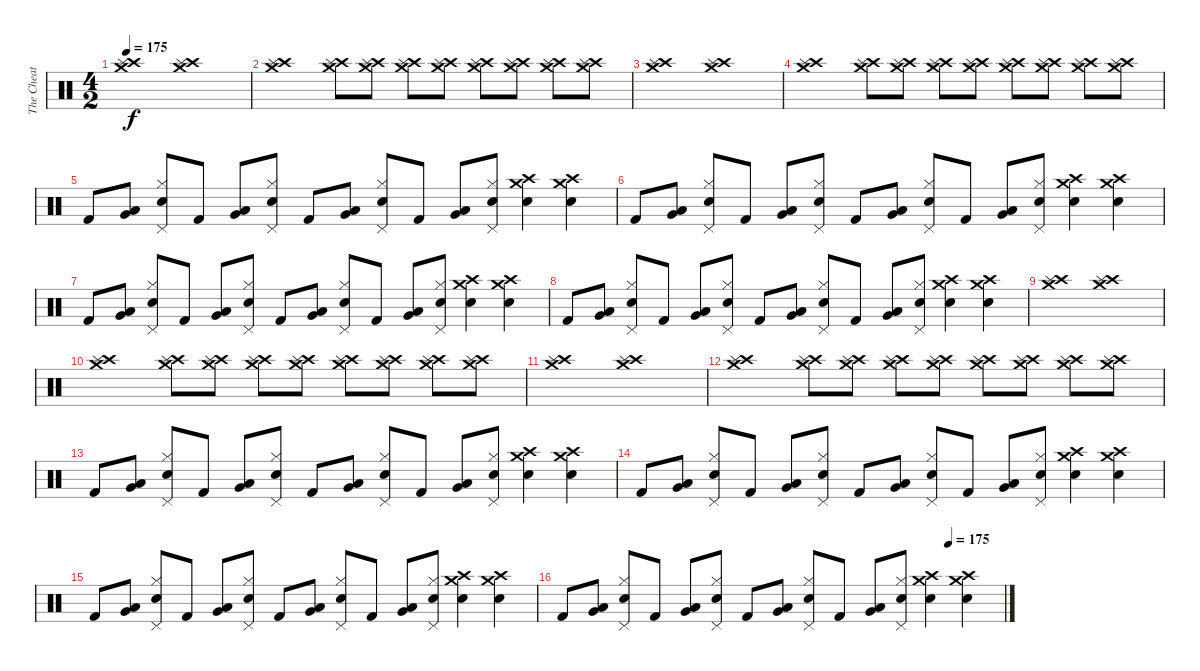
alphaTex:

\track ("The Cheat Keyboard Beat" "The Cheat ") {instrument percussion}
\staff {score}
\articulation defaults
\ts (4 2)
\tempo 175
\clef neutral
\ks c
("Crash high (hit)" "Splash (hit)" "Crash medium (hit)").1{dy f} ("Crash high (hit)" "Splash (hit)" "Crash medium (hit)").1 |
("Crash high (hit)" "Splash (hit)" "Crash medium (hit)").1 ("Crash high (hit)" "Splash (hit)" "Crash medium (hit)").8 ("Crash high (hit)" "Splash (hit)" "Crash medium (hit)").8 ("Crash high (hit)" "Splash (hit)" "Crash medium (hit)").8 ("Crash high (hit)" "Splash (hit)" "Crash medium (hit)").8 ("Crash high (hit)" "Splash (hit)" "Crash medium (hit)").8 ("Crash high (hit)" "Splash (hit)" "Crash medium (hit)").8 ("Crash high (hit)" "Splash (hit)" "Crash medium (hit)").8 ("Crash high (hit)" "Splash (hit)" "Crash medium (hit)").8 |
("Crash high (hit)" "Splash (hit)" "Crash medium (hit)").1 ("Crash high (hit)" "Splash (hit)" "Crash medium (hit)").1 |
("Crash high (hit)" "Splash (hit)" "Crash medium (hit)").1 ("Crash high (hit)" "Splash (hit)" "Crash medium (hit)").8 ("Crash high (hit)" "Splash (hit)" "Crash medium (hit)").8 ("Crash high (hit)" "Splash (hit)" "Crash medium (hit)").8 ("Crash high (hit)" "Splash (hit)" "Crash medium (hit)").8 ("Crash high (hit)" "Splash (hit)" "Crash medium (hit)").8 ("Crash high (hit)" "Splash (hit)" "Crash medium (hit)").8 ("Crash high (hit)" "Splash (hit)" "Crash medium (hit)").8 ("Crash high (hit)" "Splash (hit)" "Crash medium (hit)").8 |
"Kick (hit) 2".8 ("Low Floor Tom (hit)" "Very Low Tom (hit)").8 ("Electric Snare (hit)" "Hi-Hat (closed)" "Pedal Hi-Hat (hit)").8 "Kick (hit) 2".8 ("Low Floor Tom (hit)" "Very Low Tom (hit)").8 ("Electric Snare (hit)" "Hi-Hat (closed)" "Pedal Hi-Hat (hit)").8 "Kick (hit) 2".8 ("Low Floor Tom (hit)" "Very Low Tom (hit)").8 ("Electric Snare (hit)" "Hi-Hat (closed)" "Pedal Hi-Hat (hit)").8 "Kick (hit) 2".8 ("Low Floor Tom (hit)" "Very Low Tom (hit)").8 ("Electric Snare (hit)" "Hi-Hat (closed)" "Pedal Hi-Hat (hit)").8 ("Crash high (hit)" "Electric Snare (hit)" "Crash medium (hit)").4 ("Crash high (hit)" "Electric Snare (hit)" "Crash medium (hit)").4 |
"Kick (hit) 2".8 ("Low Floor Tom (hit)" "Very Low Tom (hit)").8 ("Electric Snare (hit)" "Hi-Hat (closed)" "Pedal Hi-Hat (hit)").8 "Kick (hit) 2".8 ("Low Floor Tom (hit)" "Very Low Tom (hit)").8 ("Electric Snare (hit)" "Hi-Hat (closed)" "Pedal Hi-Hat (hit)").8 "Kick (hit) 2".8 ("Low Floor Tom (hit)" "Very Low Tom (hit)").8 ("Electric Snare (hit)" "Hi-Hat (closed)" "Pedal Hi-Hat (hit)").8 "Kick (hit) 2".8 ("Low Floor Tom (hit)" "Very Low Tom (hit)").8 ("Electric Snare (hit)" "Hi-Hat (closed)" "Pedal Hi-Hat (hit)").8 ("Crash high (hit)" "Electric Snare (hit)" "Crash medium (hit)").4 ("Crash high (hit)" "Electric Snare (hit)" "Crash medium (hit)").4 |
"Kick (hit) 2".8 ("Low Floor Tom (hit)" "Very Low Tom (hit)").8 ("Electric Snare (hit)" "Hi-Hat (closed)" "Pedal Hi-Hat (hit)").8 "Kick (hit) 2".8 ("Low Floor Tom (hit)" "Very Low Tom (hit)").8 ("Electric Snare (hit)" "Hi-Hat (closed)" "Pedal Hi-Hat (hit)").8 "Kick (hit) 2".8 ("Low Floor Tom (hit)" "Very Low Tom (hit)").8 ("Electric Snare (hit)" "Hi-Hat (closed)" "Pedal Hi-Hat (hit)").8 "Kick (hit) 2".8 ("Low Floor Tom (hit)" "Very Low Tom (hit)").8 ("Electric Snare (hit)" "Hi-Hat (closed)" "Pedal Hi-Hat (hit)").8 ("Crash high (hit)" "Electric Snare (hit)" "Crash medium (hit)").4 ("Crash high (hit)" "Electric Snare (hit)" "Crash medium (hit)").4 |
"Kick (hit) 2".8 ("Low Floor Tom (hit)" "Very Low Tom (hit)").8 ("Electric Snare (hit)" "Hi-Hat (closed)" "Pedal Hi-Hat (hit)").8 "Kick (hit) 2".8 ("Low Floor Tom (hit)" "Very Low Tom (hit)").8 ("Electric Snare (hit)" "Hi-Hat (closed)" "Pedal Hi-Hat (hit)").8 "Kick (hit) 2".8 ("Low Floor Tom (hit)" "Very Low Tom (hit)").8 ("Electric Snare (hit)" "Hi-Hat (closed)" "Pedal Hi-Hat (hit)").8 "Kick (hit) 2".8 ("Low Floor Tom (hit)" "Very Low Tom (hit)").8 ("Electric Snare (hit)" "Hi-Hat (closed)" "Pedal Hi-Hat (hit)").8 ("Crash high (hit)" "Electric Snare (hit)" "Crash medium (hit)").4 ("Crash high (hit)" "Electric Snare (hit)" "Crash medium (hit)").4 |
("Crash high (hit)" "Splash (hit)" "Crash medium (hit)").1 ("Crash high (hit)" "Splash (hit)" "Crash medium (hit)").1 |
("Crash high (hit)" "Splash (hit)" "Crash medium (hit)").1 ("Crash high (hit)" "Splash (hit)" "Crash medium (hit)").8 ("Crash high (hit)" "Splash (hit)" "Crash medium (hit)").8 ("Crash high (hit)" "Splash (hit)" "Crash medium (hit)").8 ("Crash high (hit)" "Splash (hit)" "Crash medium (hit)").8 ("Crash high (hit)" "Splash (hit)" "Crash medium (hit)").8 ("Crash high (hit)" "Splash (hit)" "Crash medium (hit)").8 ("Crash high (hit)" "Splash (hit)" "Crash medium (hit)").8 ("Crash high (hit)" "Splash (hit)" "Crash medium (hit)").8 |
("Crash high (hit)" "Splash (hit)" "Crash medium (hit)").1 ("Crash high (hit)" "Splash (hit)" "Crash medium (hit)").1 |
("Crash high (hit)" "Splash (hit)" "Crash medium (hit)").1 ("Crash high (hit)" "Splash (hit)" "Crash medium (hit)").8 ("Crash high (hit)" "Splash (hit)" "Crash medium (hit)").8 ("Crash high (hit)" "Splash (hit)" "Crash medium (hit)").8 ("Crash high (hit)" "Splash (hit)" "Crash medium (hit)").8 ("Crash high (hit)" "Splash (hit)" "Crash medium (hit)").8 ("Crash high (hit)" "Splash (hit)" "Crash medium (hit)").8 ("Crash high (hit)" "Splash (hit)" "Crash medium (hit)").8 ("Crash high (hit)" "Splash (hit)" "Crash medium (hit)").8 |
"Kick (hit) 2".8 ("Low Floor Tom (hit)" "Very Low Tom (hit)").8 ("Electric Snare (hit)" "Hi-Hat (closed)" "Pedal Hi-Hat (hit)").8 "Kick (hit) 2".8 ("Low Floor Tom (hit)" "Very Low Tom (hit)").8 ("Electric Snare (hit)" "Hi-Hat (closed)" "Pedal Hi-Hat (hit)").8 "Kick (hit) 2".8 ("Low Floor Tom (hit)" "Very Low Tom (hit)").8 ("Electric Snare (hit)" "Hi-Hat (closed)" "Pedal Hi-Hat (hit)").8 "Kick (hit) 2".8 ("Low Floor Tom (hit)" "Very Low Tom (hit)").8 ("Electric Snare (hit)" "Hi-Hat (closed)" "Pedal Hi-Hat (hit)").8 ("Crash high (hit)" "Electric Snare (hit)" "Crash medium (hit)").4 ("Crash high (hit)" "Electric Snare (hit)" "Crash medium (hit)").4 |
"Kick (hit) 2".8 ("Low Floor Tom (hit)" "Very Low Tom (hit)").8 ("Electric Snare (hit)" "Hi-Hat (closed)" "Pedal Hi-Hat (hit)").8 "Kick (hit) 2".8 ("Low Floor Tom (hit)" "Very Low Tom (hit)").8 ("Electric Snare (hit)" "Hi-Hat (closed)" "Pedal Hi-Hat (hit)").8 "Kick (hit) 2".8 ("Low Floor Tom (hit)" "Very Low Tom (hit)").8 ("Electric Snare (hit)" "Hi-Hat (closed)" "Pedal Hi-Hat (hit)").8 "Kick (hit) 2".8 ("Low Floor Tom (hit)" "Very Low Tom (hit)").8 ("Electric Snare (hit)" "Hi-Hat (closed)" "Pedal Hi-Hat (hit)").8 ("Crash high (hit)" "Electric Snare (hit)" "Crash medium (hit)").4 ("Crash high (hit)" "Electric Snare (hit)" "Crash medium (hit)").4 |
"Kick (hit) 2".8 ("Low Floor Tom (hit)" "Very Low Tom (hit)").8 ("Electric Snare (hit)" "Hi-Hat (closed)" "Pedal Hi-Hat (hit)").8 "Kick (hit) 2".8 ("Low Floor Tom (hit)" "Very Low Tom (hit)").8 ("Electric Snare (hit)" "Hi-Hat (closed)" "Pedal Hi-Hat (hit)").8 "Kick (hit) 2".8 ("Low Floor Tom (hit)" "Very Low Tom (hit)").8 ("Electric Snare (hit)" "Hi-Hat (closed)" "Pedal Hi-Hat (hit)").8 "Kick (hit) 2".8 ("Low Floor Tom (hit)" "Very Low Tom (hit)").8 ("Electric Snare (hit)" "Hi-Hat (closed)" "Pedal Hi-Hat (hit)").8 ("Crash high (hit)" "Electric Snare (hit)" "Crash medium (hit)").4 ("Crash high (hit)" "Electric Snare (hit)" "Crash medium (hit)").4 |
\tempo (175 0.875)
"Kick (hit) 2".8 ("Low Floor Tom (hit)" "Very Low Tom (hit)").8 ("Electric Snare (hit)" "Hi-Hat (closed)" "Pedal Hi-Hat (hit)").8 "Kick (hit) 2".8 ("Low Floor Tom (hit)" "Very Low Tom (hit)").8 ("Electric Snare (hit)" "Hi-Hat (closed)" "Pedal Hi-Hat (hit)").8 "Kick (hit) 2".8 ("Low Floor Tom (hit)" "Very Low Tom (hit)").8 ("Electric Snare (hit)" "Hi-Hat (closed)" "Pedal Hi-Hat (hit)").8 "Kick (hit) 2".8 ("Low Floor Tom (hit)" "Very Low Tom (hit)").8 ("Electric Snare (hit)" "Hi-Hat (closed)" "Pedal Hi-Hat (hit)").8 ("Crash high (hit)" "Electric Snare (hit)" "Crash medium (hit)").4 ("Crash high (hit)" "Electric Snare (hit)" "Crash medium (hit)").4
